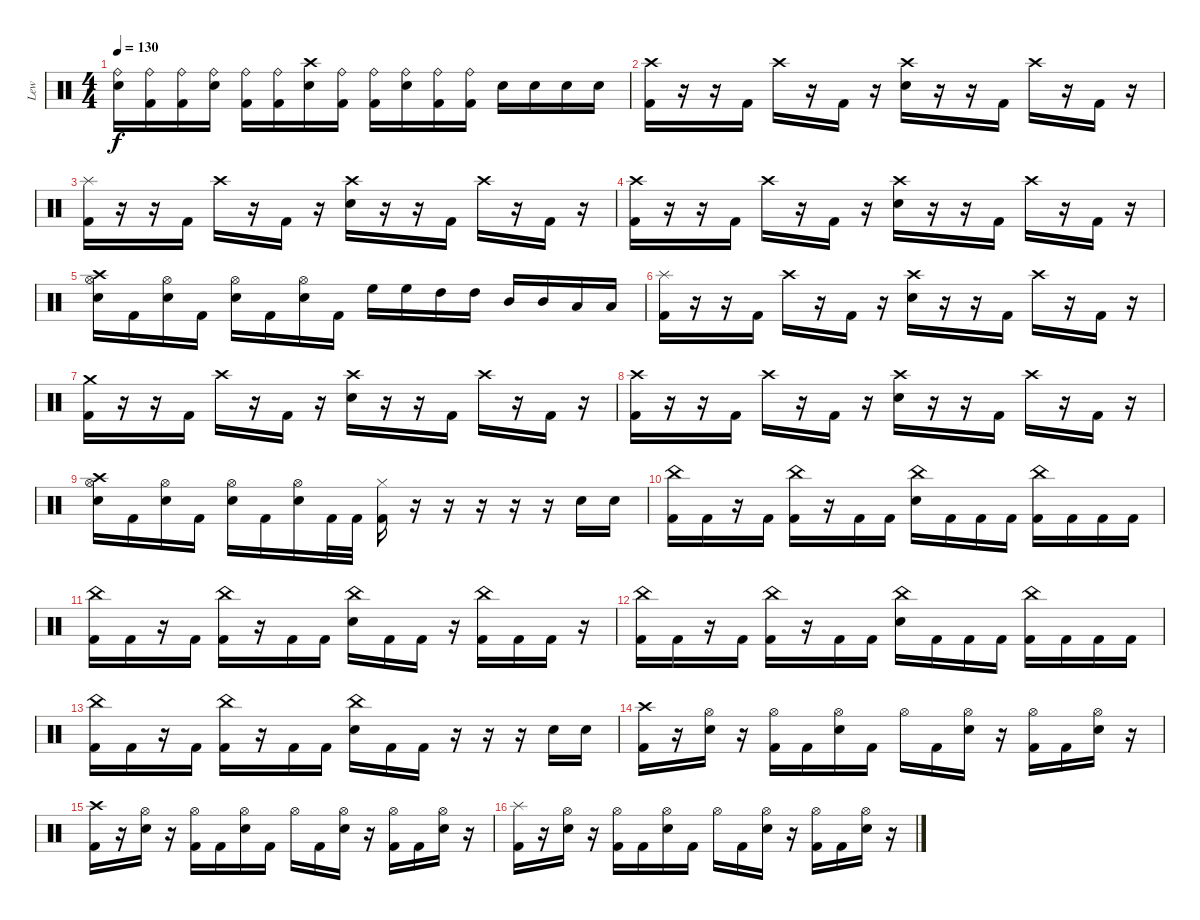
\track ("Lew" "Lew") {instrument percussion}
\staff {score}
\articulation defaults
\ts (4 4)
\tempo 130
\clef neutral
\ks c
("Ride (bell)" "Electric Snare (hit)").16{dy f} ("Ride (bell)" "Kick (hit) 2").16 ("Ride (bell)" "Kick (hit) 2").16 ("Ride (bell)" "Electric Snare (hit)").16 ("Ride (bell)" "Kick (hit) 2").16 ("Ride (bell)" "Kick (hit) 2").16 ("Crash high (hit)" "Electric Snare (hit)").16 ("Ride (bell)" "Kick (hit) 2").16 ("Ride (bell)" "Kick (hit) 2").16 ("Ride (bell)" "Electric Snare (hit)").16 ("Ride (bell)" "Kick (hit) 2").16 ("Ride (bell)" "Kick (hit) 2").16 "Electric Snare (hit)".16 "Electric Snare (hit)".16 "Electric Snare (hit)".16 "Electric Snare (hit)".16 |
("Crash high (hit)" "Kick (hit) 2").16 r.16 r.16 "Kick (hit) 2".16 "Crash high (hit)".16 r.16 "Kick (hit) 2".16 r.16 ("Crash high (hit)" "Electric Snare (hit)").16 r.16 r.16 "Kick (hit) 2".16 "Crash high (hit)".16 r.16 "Kick (hit) 2".16 r.16 |
("Splash (hit)" "Kick (hit) 2").16 r.16 r.16 "Kick (hit) 2".16 "Crash high (hit)".16 r.16 "Kick (hit) 2".16 r.16 ("Crash high (hit)" "Electric Snare (hit)").16 r.16 r.16 "Kick (hit) 2".16 "Crash high (hit)".16 r.16 "Kick (hit) 2".16 r.16 |
("Crash high (hit)" "Kick (hit) 2").16 r.16 r.16 "Kick (hit) 2".16 "Crash high (hit)".16 r.16 "Kick (hit) 2".16 r.16 ("Crash high (hit)" "Electric Snare (hit)").16 r.16 r.16 "Kick (hit) 2".16 "Crash high (hit)".16 r.16 "Kick (hit) 2".16 r.16 |
("Crash high (hit)" "Hi-Hat (open)" "Electric Snare (hit)").16 "Kick (hit) 2".16 ("Hi-Hat (open)" "Electric Snare (hit)").16 "Kick (hit) 2".16 ("Hi-Hat (open)" "Electric Snare (hit)").16 "Kick (hit) 2".16 ("Hi-Hat (open)" "Electric Snare (hit)").16 "Kick (hit) 2".16 "High Floor Tom (hit)".16 "High Floor Tom (hit)".16 "High Tom (hit)".16 "High Tom (hit)".16 "Mid Tom (hit)".16 "Mid Tom (hit)".16 "Low Tom (hit)".16 "Low Tom (hit)".16 |
("Splash (hit)" "Kick (hit) 2").16 r.16 r.16 "Kick (hit) 2".16 "Crash high (hit)".16 r.16 "Kick (hit) 2".16 r.16 ("Crash high (hit)" "Electric Snare (hit)").16 r.16 r.16 "Kick (hit) 2".16 "Crash high (hit)".16 r.16 "Kick (hit) 2".16 r.16 |
("Crash medium (hit)" "Kick (hit) 2").16 r.16 r.16 "Kick (hit) 2".16 "Crash high (hit)".16 r.16 "Kick (hit) 2".16 r.16 ("Crash high (hit)" "Electric Snare (hit)").16 r.16 r.16 "Kick (hit) 2".16 "Crash high (hit)".16 r.16 "Kick (hit) 2".16 r.16 |
("Crash high (hit)" "Kick (hit) 2").16 r.16 r.16 "Kick (hit) 2".16 "Crash high (hit)".16 r.16 "Kick (hit) 2".16 r.16 ("Crash high (hit)" "Electric Snare (hit)").16 r.16 r.16 "Kick (hit) 2".16 "Crash high (hit)".16 r.16 "Kick (hit) 2".16 r.16 |
("Crash high (hit)" "Hi-Hat (open)" "Electric Snare (hit)").16 "Kick (hit) 2".16 ("Hi-Hat (open)" "Electric Snare (hit)").16 "Kick (hit) 2".16 ("Hi-Hat (open)" "Electric Snare (hit)").16 "Kick (hit) 2".16 ("Hi-Hat (open)" "Electric Snare (hit)").16 "Kick (hit) 2".32 "Kick (hit) 2".32 ("Kick (hit) 2" "Hi-Hat (closed)").16 r.16 r.16 r.16 r.16 r.16 "Electric Snare (hit)".16 "Electric Snare (hit)".16 |
("China (hit)" "Kick (hit) 2").16 "Kick (hit) 2".16 r.16 "Kick (hit) 2".16 ("China (hit)" "Kick (hit) 2").16 r.16 "Kick (hit) 2".16 "Kick (hit) 2".16 ("China (hit)" "Electric Snare (hit)").16 "Kick (hit) 2".16 "Kick (hit) 2".16 "Kick (hit) 2".16 ("China (hit)" "Kick (hit) 2").16 "Kick (hit) 2".16 "Kick (hit) 2".16 "Kick (hit) 2".16 |
("China (hit)" "Kick (hit) 2").16 "Kick (hit) 2".16 r.16 "Kick (hit) 2".16 ("China (hit)" "Kick (hit) 2").16 r.16 "Kick (hit) 2".16 "Kick (hit) 2".16 ("China (hit)" "Electric Snare (hit)").16 "Kick (hit) 2".16 "Kick (hit) 2".16 r.16 ("China (hit)" "Kick (hit) 2").16 "Kick (hit) 2".16 "Kick (hit) 2".16 r.16 |
("China (hit)" "Kick (hit) 2").16 "Kick (hit) 2".16 r.16 "Kick (hit) 2".16 ("China (hit)" "Kick (hit) 2").16 r.16 "Kick (hit) 2".16 "Kick (hit) 2".16 ("China (hit)" "Electric Snare (hit)").16 "Kick (hit) 2".16 "Kick (hit) 2".16 "Kick (hit) 2".16 ("China (hit)" "Kick (hit) 2").16 "Kick (hit) 2".16 "Kick (hit) 2".16 "Kick (hit) 2".16 |
("China (hit)" "Kick (hit) 2").16 "Kick (hit) 2".16 r.16 "Kick (hit) 2".16 ("China (hit)" "Kick (hit) 2").16 r.16 "Kick (hit) 2".16 "Kick (hit) 2".16 ("China (hit)" "Electric Snare (hit)").16 "Kick (hit) 2".16 "Kick (hit) 2".16 r.16 r.16 r.16 "Electric Snare (hit)".16 "Electric Snare (hit)".16 |
("Crash high (hit)" "Kick (hit) 2").16 r.16 ("Hi-Hat (open)" "Electric Snare (hit)").16 r.16 ("Hi-Hat (open)" "Kick (hit) 2").16 "Kick (hit) 2".16 ("Hi-Hat (open)" "Electric Snare (hit)").16 "Kick (hit) 2".16 "Hi-Hat (open)".16 "Kick (hit) 2".16 ("Hi-Hat (open)" "Electric Snare (hit)").16 r.16 ("Hi-Hat (open)" "Kick (hit) 2").16 "Kick (hit) 2".16 ("Hi-Hat (open)" "Electric Snare (hit)").16 r.16 |
("Crash high (hit)" "Kick (hit) 2").16 r.16 ("Hi-Hat (open)" "Electric Snare (hit)").16 r.16 ("Hi-Hat (open)" "Kick (hit) 2").16 "Kick (hit) 2".16 ("Hi-Hat (open)" "Electric Snare (hit)").16 "Kick (hit) 2".16 "Hi-Hat (open)".16 "Kick (hit) 2".16 ("Hi-Hat (open)" "Electric Snare (hit)").16 r.16 ("Hi-Hat (open)" "Kick (hit) 2").16 "Kick (hit) 2".16 ("Hi-Hat (open)" "Electric Snare (hit)").16 r.16 |
("Splash (hit)" "Kick (hit) 2").16 r.16 ("Hi-Hat (open)" "Electric Snare (hit)").16 r.16 ("Hi-Hat (open)" "Kick (hit) 2").16 "Kick (hit) 2".16 ("Hi-Hat (open)" "Electric Snare (hit)").16 "Kick (hit) 2".16 "Hi-Hat (open)".16 "Kick (hit) 2".16 ("Hi-Hat (open)" "Electric Snare (hit)").16 r.16 ("Hi-Hat (open)" "Kick (hit) 2").16 "Kick (hit) 2".16 ("Hi-Hat (open)" "Electric Snare (hit)").16 r.16
